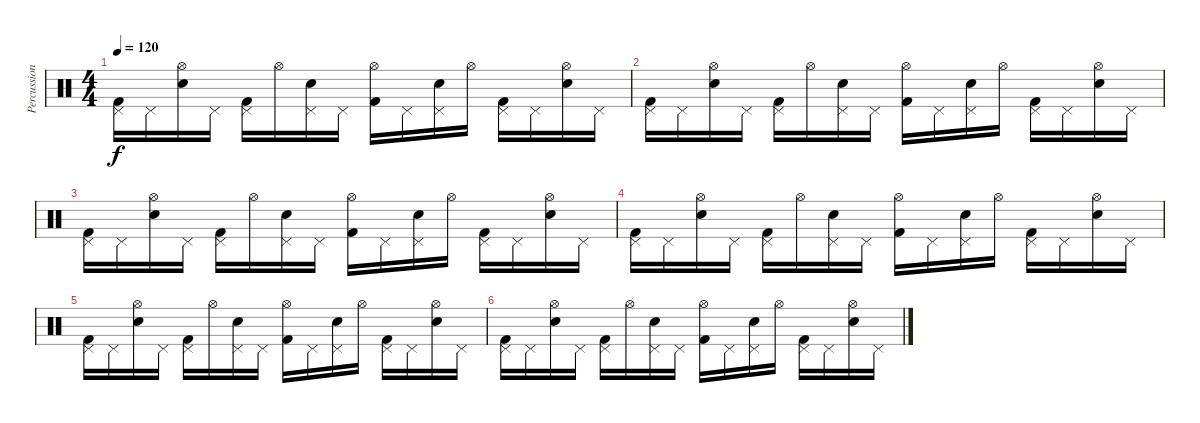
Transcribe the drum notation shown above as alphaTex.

\track ("Percussion" "Percussion") {instrument percussion}
\staff {score}
\articulation defaults
\ts (4 4)
\tempo 120
\clef neutral
\ks c
("Kick (hit) 2" "Pedal Hi-Hat (hit)").16{dy f} "Pedal Hi-Hat (hit)".16 ("Snare (hit) 2" "Hi-Hat (open)").16 "Pedal Hi-Hat (hit)".16 ("Kick (hit) 2" "Pedal Hi-Hat (hit)").16 "Hi-Hat (open)".16 ("Snare (hit) 2" "Pedal Hi-Hat (hit)").16 "Pedal Hi-Hat (hit)".16 ("Kick (hit) 2" "Hi-Hat (open)").16 "Pedal Hi-Hat (hit)".16 ("Snare (hit) 2" "Pedal Hi-Hat (hit)").16 "Hi-Hat (open)".16 ("Kick (hit) 2" "Pedal Hi-Hat (hit)").16 "Pedal Hi-Hat (hit)".16 ("Snare (hit) 2" "Hi-Hat (open)").16 "Pedal Hi-Hat (hit)".16 |
("Kick (hit) 2" "Pedal Hi-Hat (hit)").16 "Pedal Hi-Hat (hit)".16 ("Snare (hit) 2" "Hi-Hat (open)").16 "Pedal Hi-Hat (hit)".16 ("Kick (hit) 2" "Pedal Hi-Hat (hit)").16 "Hi-Hat (open)".16 ("Snare (hit) 2" "Pedal Hi-Hat (hit)").16 "Pedal Hi-Hat (hit)".16 ("Kick (hit) 2" "Hi-Hat (open)").16 "Pedal Hi-Hat (hit)".16 ("Snare (hit) 2" "Pedal Hi-Hat (hit)").16 "Hi-Hat (open)".16 ("Kick (hit) 2" "Pedal Hi-Hat (hit)").16 "Pedal Hi-Hat (hit)".16 ("Snare (hit) 2" "Hi-Hat (open)").16 "Pedal Hi-Hat (hit)".16 |
("Kick (hit) 2" "Pedal Hi-Hat (hit)").16 "Pedal Hi-Hat (hit)".16 ("Snare (hit) 2" "Hi-Hat (open)").16 "Pedal Hi-Hat (hit)".16 ("Kick (hit) 2" "Pedal Hi-Hat (hit)").16 "Hi-Hat (open)".16 ("Snare (hit) 2" "Pedal Hi-Hat (hit)").16 "Pedal Hi-Hat (hit)".16 ("Kick (hit) 2" "Hi-Hat (open)").16 "Pedal Hi-Hat (hit)".16 ("Snare (hit) 2" "Pedal Hi-Hat (hit)").16 "Hi-Hat (open)".16 ("Kick (hit) 2" "Pedal Hi-Hat (hit)").16 "Pedal Hi-Hat (hit)".16 ("Snare (hit) 2" "Hi-Hat (open)").16 "Pedal Hi-Hat (hit)".16 |
("Kick (hit) 2" "Pedal Hi-Hat (hit)").16 "Pedal Hi-Hat (hit)".16 ("Snare (hit) 2" "Hi-Hat (open)").16 "Pedal Hi-Hat (hit)".16 ("Kick (hit) 2" "Pedal Hi-Hat (hit)").16 "Hi-Hat (open)".16 ("Snare (hit) 2" "Pedal Hi-Hat (hit)").16 "Pedal Hi-Hat (hit)".16 ("Kick (hit) 2" "Hi-Hat (open)").16 "Pedal Hi-Hat (hit)".16 ("Snare (hit) 2" "Pedal Hi-Hat (hit)").16 "Hi-Hat (open)".16 ("Kick (hit) 2" "Pedal Hi-Hat (hit)").16 "Pedal Hi-Hat (hit)".16 ("Snare (hit) 2" "Hi-Hat (open)").16 "Pedal Hi-Hat (hit)".16 |
("Kick (hit) 2" "Pedal Hi-Hat (hit)").16 "Pedal Hi-Hat (hit)".16 ("Snare (hit) 2" "Hi-Hat (open)").16 "Pedal Hi-Hat (hit)".16 ("Kick (hit) 2" "Pedal Hi-Hat (hit)").16 "Hi-Hat (open)".16 ("Snare (hit) 2" "Pedal Hi-Hat (hit)").16 "Pedal Hi-Hat (hit)".16 ("Kick (hit) 2" "Hi-Hat (open)").16 "Pedal Hi-Hat (hit)".16 ("Snare (hit) 2" "Pedal Hi-Hat (hit)").16 "Hi-Hat (open)".16 ("Kick (hit) 2" "Pedal Hi-Hat (hit)").16 "Pedal Hi-Hat (hit)".16 ("Snare (hit) 2" "Hi-Hat (open)").16 "Pedal Hi-Hat (hit)".16 |
("Kick (hit) 2" "Pedal Hi-Hat (hit)").16 "Pedal Hi-Hat (hit)".16 ("Snare (hit) 2" "Hi-Hat (open)").16 "Pedal Hi-Hat (hit)".16 ("Kick (hit) 2" "Pedal Hi-Hat (hit)").16 "Hi-Hat (open)".16 ("Snare (hit) 2" "Pedal Hi-Hat (hit)").16 "Pedal Hi-Hat (hit)".16 ("Kick (hit) 2" "Hi-Hat (open)").16 "Pedal Hi-Hat (hit)".16 ("Snare (hit) 2" "Pedal Hi-Hat (hit)").16 "Hi-Hat (open)".16 ("Kick (hit) 2" "Pedal Hi-Hat (hit)").16 "Pedal Hi-Hat (hit)".16 ("Snare (hit) 2" "Hi-Hat (open)").16 "Pedal Hi-Hat (hit)".16
